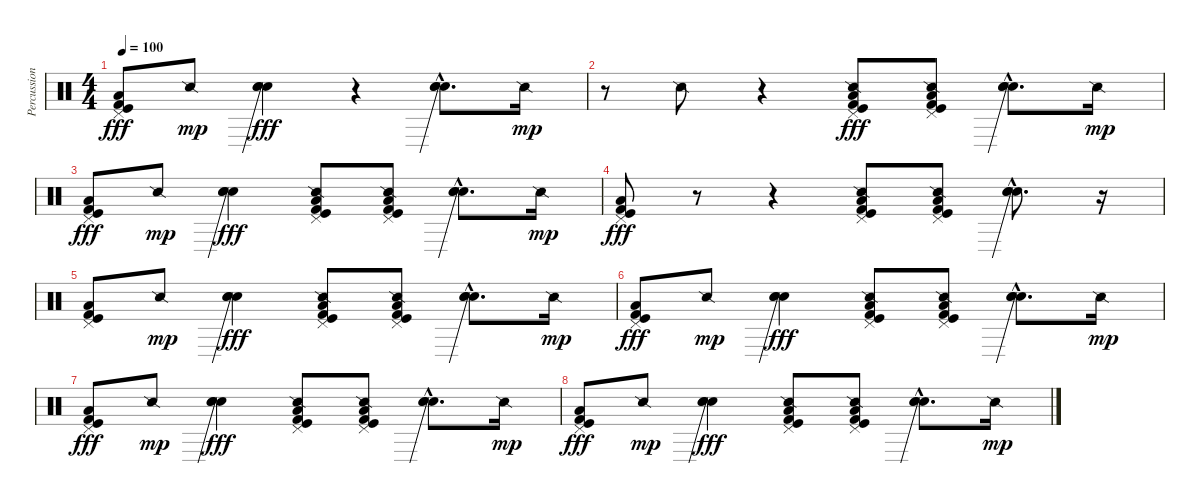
\track ("Percussion" "Percussion") {instrument percussion}
\staff {score}
\articulation defaults
\ts (4 4)
\tempo 100
\clef neutral
\ks c
("Pedal Hi-Hat (hit)" "Low Floor Tom (hit)" "Kick (hit) 2" "Kick (hit)").8{dy fff} "Snare (side stick) 2".8{dy mp} ("Electric Snare (hit)" "Hand Clap (hit)" "Hand Clap (hit)"{be (prebend 0 6 60 6)}).4{dy fff} r.4 ("Electric Snare (hit)"{hac} "Hand Clap (hit)"{hac} "Hand Clap (hit)"{be (prebend 0 6 60 6) hac}).8{d} "Snare (side stick) 2".16{dy mp} |
r.8 "Snare (side stick) 2".8 r.4 ("Snare (side stick) 2" "Pedal Hi-Hat (hit)" "Low Floor Tom (hit)" "Kick (hit) 2" "Kick (hit)").8{dy fff} ("Snare (side stick) 2" "Pedal Hi-Hat (hit)" "Low Floor Tom (hit)" "Kick (hit) 2" "Kick (hit)").8 ("Electric Snare (hit)"{hac} "Hand Clap (hit)"{hac} "Hand Clap (hit)"{be (prebend 0 6 60 6) hac}).8{d} "Snare (side stick) 2".16{dy mp} |
("Pedal Hi-Hat (hit)" "Low Floor Tom (hit)" "Kick (hit) 2" "Kick (hit)").8{dy fff} "Snare (side stick) 2".8{dy mp} ("Electric Snare (hit)" "Hand Clap (hit)" "Hand Clap (hit)"{be (prebend 0 6 60 6)}).4{dy fff} ("Snare (side stick) 2" "Pedal Hi-Hat (hit)" "Low Floor Tom (hit)" "Kick (hit) 2" "Kick (hit)").8 ("Snare (side stick) 2" "Pedal Hi-Hat (hit)" "Low Floor Tom (hit)" "Kick (hit) 2" "Kick (hit)").8 ("Electric Snare (hit)"{hac} "Hand Clap (hit)"{hac} "Hand Clap (hit)"{be (prebend 0 6 60 6) hac}).8{d} "Snare (side stick) 2".16{dy mp} |
("Pedal Hi-Hat (hit)" "Low Floor Tom (hit)" "Kick (hit) 2" "Kick (hit)").8{dy fff} r.8 r.4 ("Snare (side stick) 2" "Pedal Hi-Hat (hit)" "Low Floor Tom (hit)" "Kick (hit) 2" "Kick (hit)").8 ("Snare (side stick) 2" "Pedal Hi-Hat (hit)" "Low Floor Tom (hit)" "Kick (hit) 2" "Kick (hit)").8 ("Electric Snare (hit)"{hac} "Hand Clap (hit)"{hac} "Hand Clap (hit)"{be (prebend 0 6 60 6) hac}).8{d} r.16 |
("Pedal Hi-Hat (hit)" "Low Floor Tom (hit)" "Kick (hit) 2" "Kick (hit)").8 "Snare (side stick) 2".8{dy mp} ("Electric Snare (hit)" "Hand Clap (hit)" "Hand Clap (hit)"{be (prebend 0 6 60 6)}).4{dy fff} ("Snare (side stick) 2" "Pedal Hi-Hat (hit)" "Low Floor Tom (hit)" "Kick (hit) 2" "Kick (hit)").8 ("Snare (side stick) 2" "Pedal Hi-Hat (hit)" "Low Floor Tom (hit)" "Kick (hit) 2" "Kick (hit)").8 ("Electric Snare (hit)"{hac} "Hand Clap (hit)"{hac} "Hand Clap (hit)"{be (prebend 0 6 60 6) hac}).8{d} "Snare (side stick) 2".16{dy mp} |
("Pedal Hi-Hat (hit)" "Low Floor Tom (hit)" "Kick (hit) 2" "Kick (hit)").8{dy fff} "Snare (side stick) 2".8{dy mp} ("Electric Snare (hit)" "Hand Clap (hit)" "Hand Clap (hit)"{be (prebend 0 6 60 6)}).4{dy fff} ("Snare (side stick) 2" "Pedal Hi-Hat (hit)" "Low Floor Tom (hit)" "Kick (hit) 2" "Kick (hit)").8 ("Snare (side stick) 2" "Pedal Hi-Hat (hit)" "Low Floor Tom (hit)" "Kick (hit) 2" "Kick (hit)").8 ("Electric Snare (hit)"{hac} "Hand Clap (hit)"{hac} "Hand Clap (hit)"{be (prebend 0 6 60 6) hac}).8{d} "Snare (side stick) 2".16{dy mp} |
("Pedal Hi-Hat (hit)" "Low Floor Tom (hit)" "Kick (hit) 2" "Kick (hit)").8{dy fff} "Snare (side stick) 2".8{dy mp} ("Electric Snare (hit)" "Hand Clap (hit)" "Hand Clap (hit)"{be (prebend 0 6 60 6)}).4{dy fff} ("Snare (side stick) 2" "Pedal Hi-Hat (hit)" "Low Floor Tom (hit)" "Kick (hit) 2" "Kick (hit)").8 ("Snare (side stick) 2" "Pedal Hi-Hat (hit)" "Low Floor Tom (hit)" "Kick (hit) 2" "Kick (hit)").8 ("Electric Snare (hit)"{hac} "Hand Clap (hit)"{hac} "Hand Clap (hit)"{be (prebend 0 6 60 6) hac}).8{d} "Snare (side stick) 2".16{dy mp} |
("Pedal Hi-Hat (hit)" "Low Floor Tom (hit)" "Kick (hit) 2" "Kick (hit)").8{dy fff} "Snare (side stick) 2".8{dy mp} ("Electric Snare (hit)" "Hand Clap (hit)" "Hand Clap (hit)"{be (prebend 0 6 60 6)}).4{dy fff} ("Snare (side stick) 2" "Pedal Hi-Hat (hit)" "Low Floor Tom (hit)" "Kick (hit) 2" "Kick (hit)").8 ("Snare (side stick) 2" "Pedal Hi-Hat (hit)" "Low Floor Tom (hit)" "Kick (hit) 2" "Kick (hit)").8 ("Electric Snare (hit)"{hac} "Hand Clap (hit)"{hac} "Hand Clap (hit)"{be (prebend 0 6 60 6) hac}).8{d} "Snare (side stick) 2".16{dy mp}
